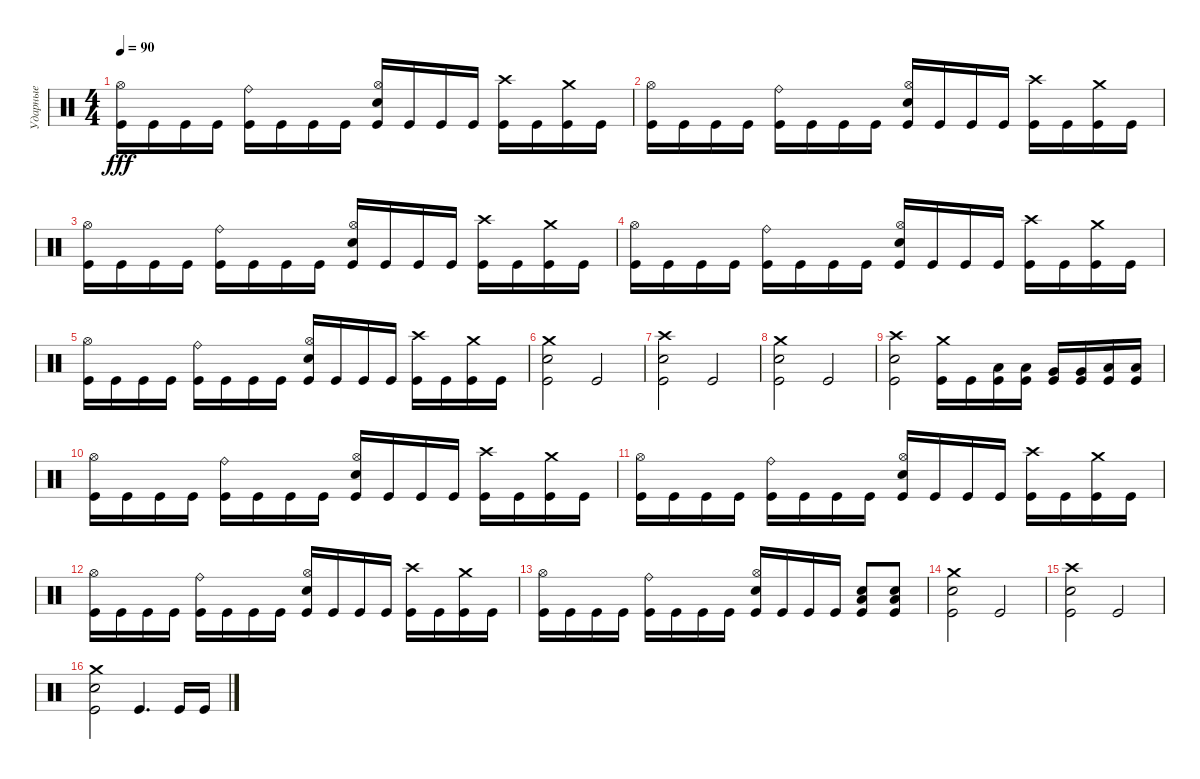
\track ("Ударные" "Ударные") {instrument percussion}
\staff {score}
\articulation defaults
\ts (4 4)
\tempo 90
\clef neutral
\ks c
("Kick (hit)" "Hi-Hat (open)").16{dy fff} "Kick (hit)".16 "Kick (hit)".16 "Kick (hit)".16 ("Kick (hit)" "Ride (bell)").16 "Kick (hit)".16 "Kick (hit)".16 "Kick (hit)".16 ("Kick (hit)" "Snare (hit) 2" "Hi-Hat (open)").16 "Kick (hit)".16 "Kick (hit)".16 "Kick (hit)".16 ("Kick (hit)" "Crash high (hit)").16 "Kick (hit)".16 ("Kick (hit)" "Crash medium (hit)").16 "Kick (hit)".16 |
("Kick (hit)" "Hi-Hat (open)").16 "Kick (hit)".16 "Kick (hit)".16 "Kick (hit)".16 ("Kick (hit)" "Ride (bell)").16 "Kick (hit)".16 "Kick (hit)".16 "Kick (hit)".16 ("Kick (hit)" "Snare (hit) 2" "Hi-Hat (open)").16 "Kick (hit)".16 "Kick (hit)".16 "Kick (hit)".16 ("Kick (hit)" "Crash high (hit)").16 "Kick (hit)".16 ("Kick (hit)" "Crash medium (hit)").16 "Kick (hit)".16 |
("Kick (hit)" "Hi-Hat (open)").16 "Kick (hit)".16 "Kick (hit)".16 "Kick (hit)".16 ("Kick (hit)" "Ride (bell)").16 "Kick (hit)".16 "Kick (hit)".16 "Kick (hit)".16 ("Kick (hit)" "Snare (hit) 2" "Hi-Hat (open)").16 "Kick (hit)".16 "Kick (hit)".16 "Kick (hit)".16 ("Kick (hit)" "Crash high (hit)").16 "Kick (hit)".16 ("Kick (hit)" "Crash medium (hit)").16 "Kick (hit)".16 |
("Kick (hit)" "Hi-Hat (open)").16 "Kick (hit)".16 "Kick (hit)".16 "Kick (hit)".16 ("Kick (hit)" "Ride (bell)").16 "Kick (hit)".16 "Kick (hit)".16 "Kick (hit)".16 ("Kick (hit)" "Snare (hit) 2" "Hi-Hat (open)").16 "Kick (hit)".16 "Kick (hit)".16 "Kick (hit)".16 ("Kick (hit)" "Crash high (hit)").16 "Kick (hit)".16 ("Kick (hit)" "Crash medium (hit)").16 "Kick (hit)".16 |
("Kick (hit)" "Hi-Hat (open)").16 "Kick (hit)".16 "Kick (hit)".16 "Kick (hit)".16 ("Kick (hit)" "Ride (bell)").16 "Kick (hit)".16 "Kick (hit)".16 "Kick (hit)".16 ("Kick (hit)" "Snare (hit) 2" "Hi-Hat (open)").16 "Kick (hit)".16 "Kick (hit)".16 "Kick (hit)".16 ("Kick (hit)" "Crash high (hit)").16 "Kick (hit)".16 ("Kick (hit)" "Crash medium (hit)").16 "Kick (hit)".16 |
("Kick (hit)" "Crash medium (hit)" "Snare (hit) 2").2 "Kick (hit)".2 |
("Kick (hit)" "Crash high (hit)" "Snare (hit) 2").2 "Kick (hit)".2 |
("Kick (hit)" "Crash medium (hit)" "Snare (hit) 2").2 "Kick (hit)".2 |
("Kick (hit)" "Crash high (hit)" "Snare (hit) 2").2 ("Kick (hit)" "Crash medium (hit)").16 "Kick (hit)".16 ("Kick (hit)" "Low Tom (hit)").16 ("Kick (hit)" "Low Tom (hit)").16 ("Kick (hit)" "Very Low Tom (hit)").16 ("Kick (hit)" "Very Low Tom (hit)").16 ("Kick (hit)" "Low Floor Tom (hit)").16 ("Kick (hit)" "Low Floor Tom (hit)").16 |
("Kick (hit)" "Hi-Hat (open)").16 "Kick (hit)".16 "Kick (hit)".16 "Kick (hit)".16 ("Kick (hit)" "Ride (bell)").16 "Kick (hit)".16 "Kick (hit)".16 "Kick (hit)".16 ("Kick (hit)" "Snare (hit) 2" "Hi-Hat (open)").16 "Kick (hit)".16 "Kick (hit)".16 "Kick (hit)".16 ("Kick (hit)" "Crash high (hit)").16 "Kick (hit)".16 ("Kick (hit)" "Crash medium (hit)").16 "Kick (hit)".16 |
("Kick (hit)" "Hi-Hat (open)").16 "Kick (hit)".16 "Kick (hit)".16 "Kick (hit)".16 ("Kick (hit)" "Ride (bell)").16 "Kick (hit)".16 "Kick (hit)".16 "Kick (hit)".16 ("Kick (hit)" "Snare (hit) 2" "Hi-Hat (open)").16 "Kick (hit)".16 "Kick (hit)".16 "Kick (hit)".16 ("Kick (hit)" "Crash high (hit)").16 "Kick (hit)".16 ("Kick (hit)" "Crash medium (hit)").16 "Kick (hit)".16 |
("Kick (hit)" "Hi-Hat (open)").16 "Kick (hit)".16 "Kick (hit)".16 "Kick (hit)".16 ("Kick (hit)" "Ride (bell)").16 "Kick (hit)".16 "Kick (hit)".16 "Kick (hit)".16 ("Kick (hit)" "Snare (hit) 2" "Hi-Hat (open)").16 "Kick (hit)".16 "Kick (hit)".16 "Kick (hit)".16 ("Kick (hit)" "Crash high (hit)").16 "Kick (hit)".16 ("Kick (hit)" "Crash medium (hit)").16 "Kick (hit)".16 |
("Kick (hit)" "Hi-Hat (open)").16 "Kick (hit)".16 "Kick (hit)".16 "Kick (hit)".16 ("Kick (hit)" "Ride (bell)").16 "Kick (hit)".16 "Kick (hit)".16 "Kick (hit)".16 ("Kick (hit)" "Snare (hit) 2" "Hi-Hat (open)").16 "Kick (hit)".16 "Kick (hit)".16 "Kick (hit)".16 ("Kick (hit)" "Low Floor Tom (hit)" "Snare (hit) 2").8 ("Kick (hit)" "Low Floor Tom (hit)" "Snare (hit) 2").8 |
("Kick (hit)" "Crash medium (hit)" "Snare (hit) 2").2 "Kick (hit)".2 |
("Kick (hit)" "Crash high (hit)" "Snare (hit) 2").2 "Kick (hit)".2 |
("Kick (hit)" "Crash medium (hit)" "Snare (hit) 2").2 "Kick (hit)".4{d} "Kick (hit)".16 "Kick (hit)".16
